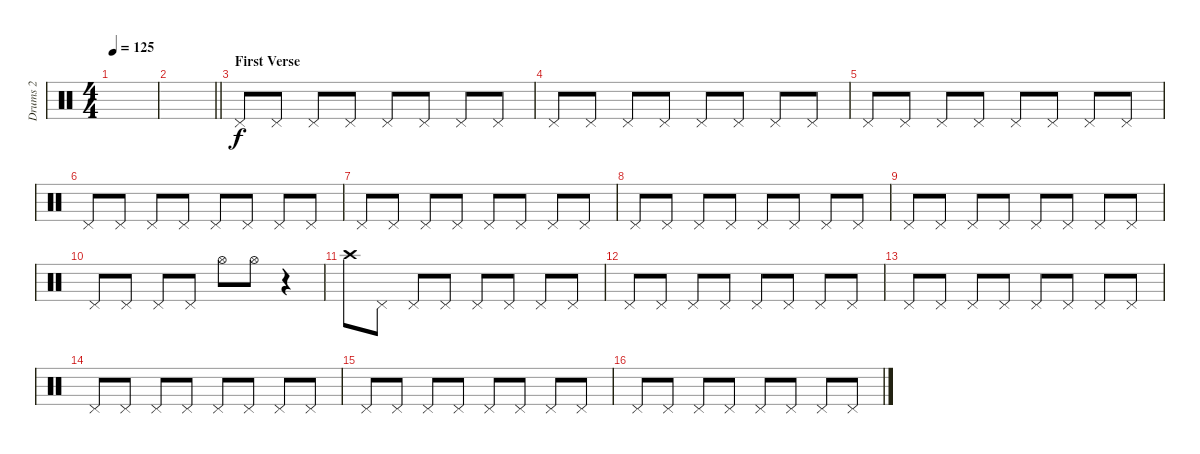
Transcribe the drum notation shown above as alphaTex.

\track ("Drums 2" "Drums 2") {instrument percussion}
\staff {score}
\articulation defaults
\ts (4 4)
\tempo 125
\clef neutral
\ks c
|
\barLineRight lightlight
|
\section ("" "First Verse")
"Pedal Hi-Hat (hit)".8 "Pedal Hi-Hat (hit)".8 "Pedal Hi-Hat (hit)".8 "Pedal Hi-Hat (hit)".8 "Pedal Hi-Hat (hit)".8 "Pedal Hi-Hat (hit)".8 "Pedal Hi-Hat (hit)".8 "Pedal Hi-Hat (hit)".8 |
"Pedal Hi-Hat (hit)".8 "Pedal Hi-Hat (hit)".8 "Pedal Hi-Hat (hit)".8 "Pedal Hi-Hat (hit)".8 "Pedal Hi-Hat (hit)".8 "Pedal Hi-Hat (hit)".8 "Pedal Hi-Hat (hit)".8 "Pedal Hi-Hat (hit)".8 |
"Pedal Hi-Hat (hit)".8 "Pedal Hi-Hat (hit)".8 "Pedal Hi-Hat (hit)".8 "Pedal Hi-Hat (hit)".8 "Pedal Hi-Hat (hit)".8 "Pedal Hi-Hat (hit)".8 "Pedal Hi-Hat (hit)".8 "Pedal Hi-Hat (hit)".8 |
"Pedal Hi-Hat (hit)".8 "Pedal Hi-Hat (hit)".8 "Pedal Hi-Hat (hit)".8 "Pedal Hi-Hat (hit)".8 "Pedal Hi-Hat (hit)".8 "Pedal Hi-Hat (hit)".8 "Pedal Hi-Hat (hit)".8 "Pedal Hi-Hat (hit)".8 |
"Pedal Hi-Hat (hit)".8 "Pedal Hi-Hat (hit)".8 "Pedal Hi-Hat (hit)".8 "Pedal Hi-Hat (hit)".8 "Pedal Hi-Hat (hit)".8 "Pedal Hi-Hat (hit)".8 "Pedal Hi-Hat (hit)".8 "Pedal Hi-Hat (hit)".8 |
"Pedal Hi-Hat (hit)".8 "Pedal Hi-Hat (hit)".8 "Pedal Hi-Hat (hit)".8 "Pedal Hi-Hat (hit)".8 "Pedal Hi-Hat (hit)".8 "Pedal Hi-Hat (hit)".8 "Pedal Hi-Hat (hit)".8 "Pedal Hi-Hat (hit)".8 |
"Pedal Hi-Hat (hit)".8 "Pedal Hi-Hat (hit)".8 "Pedal Hi-Hat (hit)".8 "Pedal Hi-Hat (hit)".8 "Pedal Hi-Hat (hit)".8 "Pedal Hi-Hat (hit)".8 "Pedal Hi-Hat (hit)".8 "Pedal Hi-Hat (hit)".8 |
"Pedal Hi-Hat (hit)".8 "Pedal Hi-Hat (hit)".8 "Pedal Hi-Hat (hit)".8 "Pedal Hi-Hat (hit)".8 "Hi-Hat (open)".8 "Hi-Hat (open)".8 r.4 |
"Crash high (hit)".8 "Pedal Hi-Hat (hit)".8 "Pedal Hi-Hat (hit)".8 "Pedal Hi-Hat (hit)".8 "Pedal Hi-Hat (hit)".8 "Pedal Hi-Hat (hit)".8 "Pedal Hi-Hat (hit)".8 "Pedal Hi-Hat (hit)".8 |
"Pedal Hi-Hat (hit)".8 "Pedal Hi-Hat (hit)".8 "Pedal Hi-Hat (hit)".8 "Pedal Hi-Hat (hit)".8 "Pedal Hi-Hat (hit)".8 "Pedal Hi-Hat (hit)".8 "Pedal Hi-Hat (hit)".8 "Pedal Hi-Hat (hit)".8 |
"Pedal Hi-Hat (hit)".8 "Pedal Hi-Hat (hit)".8 "Pedal Hi-Hat (hit)".8 "Pedal Hi-Hat (hit)".8 "Pedal Hi-Hat (hit)".8 "Pedal Hi-Hat (hit)".8 "Pedal Hi-Hat (hit)".8 "Pedal Hi-Hat (hit)".8 |
"Pedal Hi-Hat (hit)".8 "Pedal Hi-Hat (hit)".8 "Pedal Hi-Hat (hit)".8 "Pedal Hi-Hat (hit)".8 "Pedal Hi-Hat (hit)".8 "Pedal Hi-Hat (hit)".8 "Pedal Hi-Hat (hit)".8 "Pedal Hi-Hat (hit)".8 |
"Pedal Hi-Hat (hit)".8 "Pedal Hi-Hat (hit)".8 "Pedal Hi-Hat (hit)".8 "Pedal Hi-Hat (hit)".8 "Pedal Hi-Hat (hit)".8 "Pedal Hi-Hat (hit)".8 "Pedal Hi-Hat (hit)".8 "Pedal Hi-Hat (hit)".8 |
"Pedal Hi-Hat (hit)".8 "Pedal Hi-Hat (hit)".8 "Pedal Hi-Hat (hit)".8 "Pedal Hi-Hat (hit)".8 "Pedal Hi-Hat (hit)".8 "Pedal Hi-Hat (hit)".8 "Pedal Hi-Hat (hit)".8 "Pedal Hi-Hat (hit)".8
